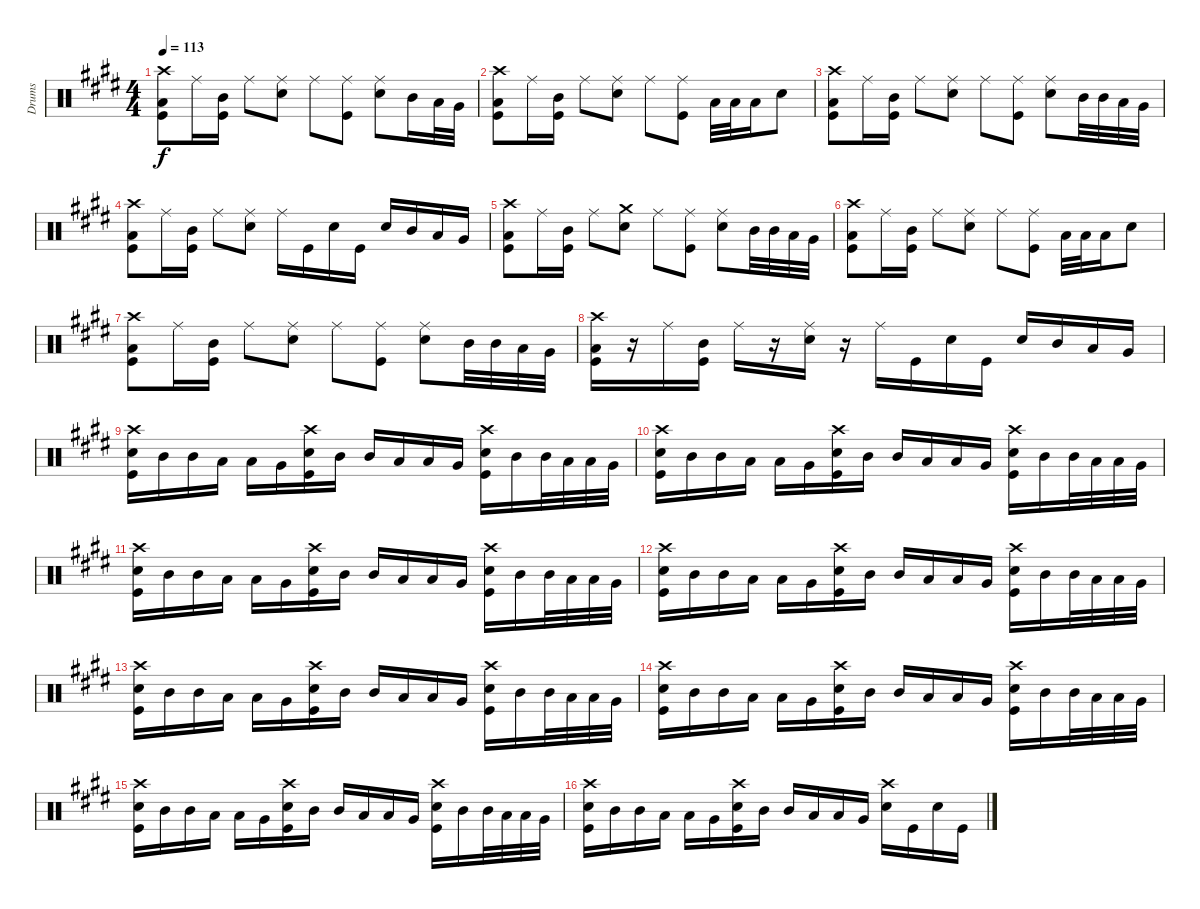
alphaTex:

\track ("Drums" "Drums") {instrument percussion}
\staff {score}
\articulation defaults
\ts (4 4)
\tempo 113
\clef neutral
\ks e
("Crash high (hit)" "Low Tom (hit)" "Kick (hit)").8{dy f} "Ride (middle)".16 ("Mid Tom (hit)" "Kick (hit)").16 "Ride (middle)".8 ("Ride (middle)" "Snare (hit) 2").8 "Ride (middle)".8 ("Ride (middle)" "Kick (hit)").8 ("Ride (middle)" "Snare (hit) 2").8 "Mid Tom (hit)".16 "Low Tom (hit)".32 "Very Low Tom (hit)".32 |
("Crash high (hit)" "Low Tom (hit)" "Kick (hit)").8 "Ride (middle)".16 ("Mid Tom (hit)" "Kick (hit)").16 "Ride (middle)".8 ("Ride (middle)" "Snare (hit) 2").8 "Ride (middle)".8 ("Ride (middle)" "Kick (hit)").8 "Low Tom (hit)".32 "Low Tom (hit)".32 "Low Tom (hit)".16 "Snare (hit) 2".8 |
("Crash high (hit)" "Low Tom (hit)" "Kick (hit)").8 "Ride (middle)".16 ("Mid Tom (hit)" "Kick (hit)").16 "Ride (middle)".8 ("Ride (middle)" "Snare (hit) 2").8 "Ride (middle)".8 ("Ride (middle)" "Kick (hit)").8 ("Ride (middle)" "Snare (hit) 2").8 "Mid Tom (hit)".32 "Mid Tom (hit)".32 "Low Tom (hit)".32 "Very Low Tom (hit)".32 |
("Crash high (hit)" "Low Tom (hit)" "Kick (hit)").8 "Ride (middle)".16 ("Mid Tom (hit)" "Kick (hit)").16 "Ride (middle)".8 ("Ride (middle)" "Snare (hit) 2").8 "Ride (middle)".16 "Kick (hit)".16 "Snare (hit) 2".16 "Kick (hit)".16 "Snare (hit) 2".16 "Mid Tom (hit)".16 "Low Tom (hit)".16 "Very Low Tom (hit)".16 |
("Crash high (hit)" "Low Tom (hit)" "Kick (hit)").8 "Ride (middle)".16 ("Mid Tom (hit)" "Kick (hit)").16 "Ride (middle)".8 ("Crash medium (hit)" "Snare (hit) 2").8 "Ride (middle)".8 ("Ride (middle)" "Kick (hit)").8 ("Ride (middle)" "Snare (hit) 2").8 "Mid Tom (hit)".32 "Mid Tom (hit)".32 "Low Tom (hit)".32 "Very Low Tom (hit)".32 |
("Crash high (hit)" "Low Tom (hit)" "Kick (hit)").8 "Ride (middle)".16 ("Mid Tom (hit)" "Kick (hit)").16 "Ride (middle)".8 ("Ride (middle)" "Snare (hit) 2").8 "Ride (middle)".8 ("Ride (middle)" "Kick (hit)").8 "Low Tom (hit)".32 "Low Tom (hit)".32 "Low Tom (hit)".16 "Snare (hit) 2".8 |
("Crash high (hit)" "Low Tom (hit)" "Kick (hit)").8 "Ride (middle)".16 ("Mid Tom (hit)" "Kick (hit)").16 "Ride (middle)".8 ("Ride (middle)" "Snare (hit) 2").8 "Ride (middle)".8 ("Ride (middle)" "Kick (hit)").8 ("Ride (middle)" "Snare (hit) 2").8 "Mid Tom (hit)".32 "Mid Tom (hit)".32 "Low Tom (hit)".32 "Very Low Tom (hit)".32 |
("Crash high (hit)" "Low Tom (hit)" "Kick (hit)").16 r.16 "Ride (middle)".16 ("Mid Tom (hit)" "Kick (hit)").16 "Ride (middle)".16 r.16 ("Ride (middle)" "Snare (hit) 2").16 r.16 "Ride (middle)".16 "Kick (hit)".16 "Snare (hit) 2".16 "Kick (hit)".16 "Snare (hit) 2".16 "Mid Tom (hit)".16 "Low Tom (hit)".16 "Very Low Tom (hit)".16 |
("Crash high (hit)" "Snare (hit) 2" "Kick (hit)").16 "Mid Tom (hit)".16 "Mid Tom (hit)".16 "Low Tom (hit)".16 "Low Tom (hit)".16 "Very Low Tom (hit)".16 ("Crash high (hit)" "Snare (hit) 2" "Kick (hit)").16 "Mid Tom (hit)".16 "Mid Tom (hit)".16 "Low Tom (hit)".16 "Low Tom (hit)".16 "Very Low Tom (hit)".16 ("Crash high (hit)" "Snare (hit) 2" "Kick (hit)").16 "Mid Tom (hit)".16 "Mid Tom (hit)".32 "Low Tom (hit)".32 "Low Tom (hit)".32 "Very Low Tom (hit)".32 |
("Crash high (hit)" "Snare (hit) 2" "Kick (hit)").16 "Mid Tom (hit)".16 "Mid Tom (hit)".16 "Low Tom (hit)".16 "Low Tom (hit)".16 "Very Low Tom (hit)".16 ("Crash high (hit)" "Snare (hit) 2" "Kick (hit)").16 "Mid Tom (hit)".16 "Mid Tom (hit)".16 "Low Tom (hit)".16 "Low Tom (hit)".16 "Very Low Tom (hit)".16 ("Crash high (hit)" "Snare (hit) 2" "Kick (hit)").16 "Mid Tom (hit)".16 "Mid Tom (hit)".32 "Low Tom (hit)".32 "Low Tom (hit)".32 "Very Low Tom (hit)".32 |
("Crash high (hit)" "Snare (hit) 2" "Kick (hit)").16 "Mid Tom (hit)".16 "Mid Tom (hit)".16 "Low Tom (hit)".16 "Low Tom (hit)".16 "Very Low Tom (hit)".16 ("Crash high (hit)" "Snare (hit) 2" "Kick (hit)").16 "Mid Tom (hit)".16 "Mid Tom (hit)".16 "Low Tom (hit)".16 "Low Tom (hit)".16 "Very Low Tom (hit)".16 ("Crash high (hit)" "Snare (hit) 2" "Kick (hit)").16 "Mid Tom (hit)".16 "Mid Tom (hit)".32 "Low Tom (hit)".32 "Low Tom (hit)".32 "Very Low Tom (hit)".32 |
("Crash high (hit)" "Snare (hit) 2" "Kick (hit)").16 "Mid Tom (hit)".16 "Mid Tom (hit)".16 "Low Tom (hit)".16 "Low Tom (hit)".16 "Very Low Tom (hit)".16 ("Crash high (hit)" "Snare (hit) 2" "Kick (hit)").16 "Mid Tom (hit)".16 "Mid Tom (hit)".16 "Low Tom (hit)".16 "Low Tom (hit)".16 "Very Low Tom (hit)".16 ("Crash high (hit)" "Snare (hit) 2" "Kick (hit)").16 "Mid Tom (hit)".16 "Mid Tom (hit)".32 "Low Tom (hit)".32 "Low Tom (hit)".32 "Very Low Tom (hit)".32 |
("Crash high (hit)" "Snare (hit) 2" "Kick (hit)").16 "Mid Tom (hit)".16 "Mid Tom (hit)".16 "Low Tom (hit)".16 "Low Tom (hit)".16 "Very Low Tom (hit)".16 ("Crash high (hit)" "Snare (hit) 2" "Kick (hit)").16 "Mid Tom (hit)".16 "Mid Tom (hit)".16 "Low Tom (hit)".16 "Low Tom (hit)".16 "Very Low Tom (hit)".16 ("Crash high (hit)" "Snare (hit) 2" "Kick (hit)").16 "Mid Tom (hit)".16 "Mid Tom (hit)".32 "Low Tom (hit)".32 "Low Tom (hit)".32 "Very Low Tom (hit)".32 |
("Crash high (hit)" "Snare (hit) 2" "Kick (hit)").16 "Mid Tom (hit)".16 "Mid Tom (hit)".16 "Low Tom (hit)".16 "Low Tom (hit)".16 "Very Low Tom (hit)".16 ("Crash high (hit)" "Snare (hit) 2" "Kick (hit)").16 "Mid Tom (hit)".16 "Mid Tom (hit)".16 "Low Tom (hit)".16 "Low Tom (hit)".16 "Very Low Tom (hit)".16 ("Crash high (hit)" "Snare (hit) 2" "Kick (hit)").16 "Mid Tom (hit)".16 "Mid Tom (hit)".32 "Low Tom (hit)".32 "Low Tom (hit)".32 "Very Low Tom (hit)".32 |
("Crash high (hit)" "Snare (hit) 2" "Kick (hit)").16 "Mid Tom (hit)".16 "Mid Tom (hit)".16 "Low Tom (hit)".16 "Low Tom (hit)".16 "Very Low Tom (hit)".16 ("Crash high (hit)" "Snare (hit) 2" "Kick (hit)").16 "Mid Tom (hit)".16 "Mid Tom (hit)".16 "Low Tom (hit)".16 "Low Tom (hit)".16 "Very Low Tom (hit)".16 ("Crash high (hit)" "Snare (hit) 2" "Kick (hit)").16 "Mid Tom (hit)".16 "Mid Tom (hit)".32 "Low Tom (hit)".32 "Low Tom (hit)".32 "Very Low Tom (hit)".32 |
("Crash high (hit)" "Snare (hit) 2" "Kick (hit)").16 "Mid Tom (hit)".16 "Mid Tom (hit)".16 "Low Tom (hit)".16 "Low Tom (hit)".16 "Very Low Tom (hit)".16 ("Crash high (hit)" "Snare (hit) 2" "Kick (hit)").16 "Mid Tom (hit)".16 "Mid Tom (hit)".16 "Low Tom (hit)".16 "Low Tom (hit)".16 "Very Low Tom (hit)".16 ("Crash high (hit)" "Snare (hit) 2").16 "Kick (hit)".16 "Snare (hit) 2".16 "Kick (hit)".16
